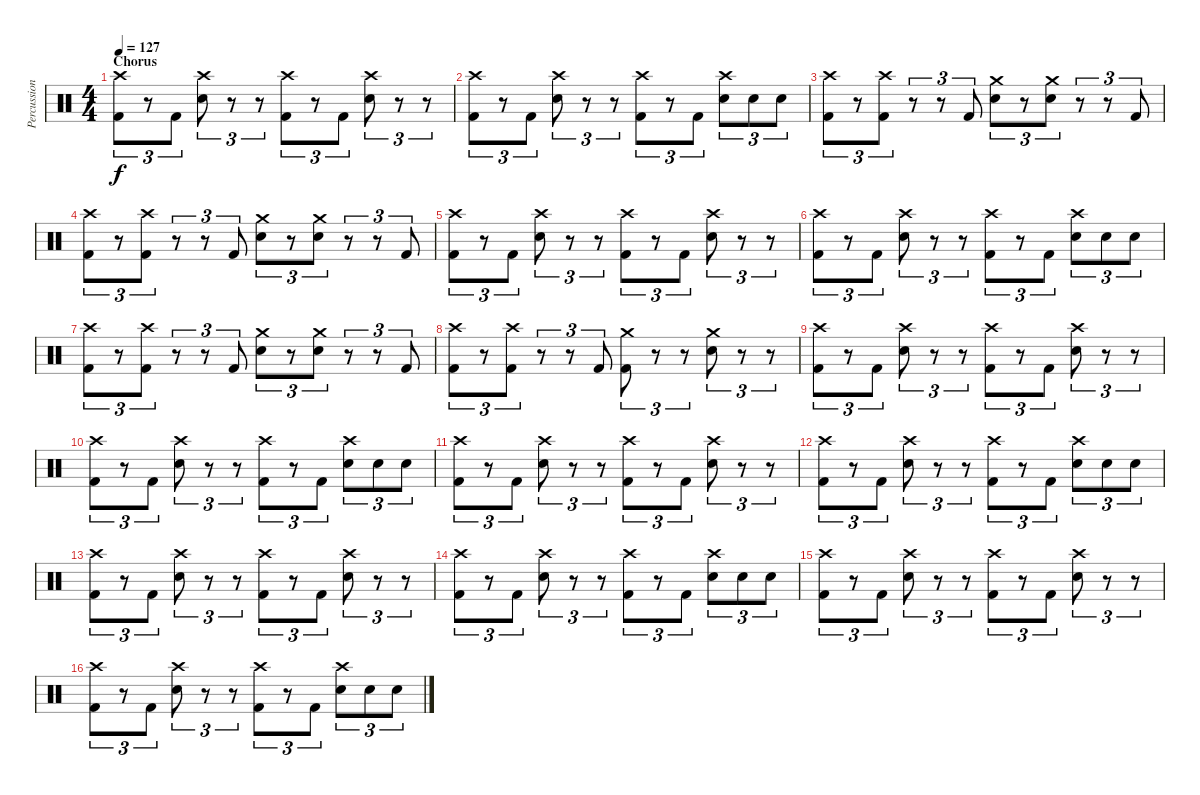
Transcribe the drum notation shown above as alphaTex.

\track ("Percussion" "Percussion") {instrument percussion}
\staff {score}
\articulation defaults
\ts (4 4)
\section ("" "Chorus")
\tempo 127
\clef neutral
\ks c
("Crash high (hit)" "Kick (hit) 2").8{tu (3 2) dy f volume 13} r.8{tu (3 2)} "Kick (hit) 2".8{tu (3 2)} ("Crash high (hit)" "Electric Snare (hit)").8{tu (3 2)} r.8{tu (3 2)} r.8{tu (3 2)} ("Crash high (hit)" "Kick (hit) 2").8{tu (3 2)} r.8{tu (3 2)} "Kick (hit) 2".8{tu (3 2)} ("Crash high (hit)" "Electric Snare (hit)").8{tu (3 2)} r.8{tu (3 2)} r.8{tu (3 2)} |
("Crash high (hit)" "Kick (hit) 2").8{tu (3 2)} r.8{tu (3 2)} "Kick (hit) 2".8{tu (3 2)} ("Crash high (hit)" "Electric Snare (hit)").8{tu (3 2)} r.8{tu (3 2)} r.8{tu (3 2)} ("Crash high (hit)" "Kick (hit) 2").8{tu (3 2)} r.8{tu (3 2)} "Kick (hit) 2".8{tu (3 2)} ("Crash high (hit)" "Electric Snare (hit)").8{tu (3 2)} "Electric Snare (hit)".8{tu (3 2)} "Electric Snare (hit)".8{tu (3 2)} |
("Crash high (hit)" "Kick (hit) 2").8{tu (3 2)} r.8{tu (3 2)} ("Crash high (hit)" "Kick (hit) 2").8{tu (3 2)} r.8{tu (3 2)} r.8{tu (3 2)} "Kick (hit) 2".8{tu (3 2)} ("Crash medium (hit)" "Electric Snare (hit)").8{tu (3 2)} r.8{tu (3 2)} ("Crash medium (hit)" "Electric Snare (hit)").8{tu (3 2)} r.8{tu (3 2)} r.8{tu (3 2)} "Kick (hit) 2".8{tu (3 2)} |
("Crash high (hit)" "Kick (hit) 2").8{tu (3 2)} r.8{tu (3 2)} ("Crash high (hit)" "Kick (hit) 2").8{tu (3 2)} r.8{tu (3 2)} r.8{tu (3 2)} "Kick (hit) 2".8{tu (3 2)} ("Crash medium (hit)" "Electric Snare (hit)").8{tu (3 2)} r.8{tu (3 2)} ("Crash medium (hit)" "Electric Snare (hit)").8{tu (3 2)} r.8{tu (3 2)} r.8{tu (3 2)} "Kick (hit) 2".8{tu (3 2)} |
("Crash high (hit)" "Kick (hit) 2").8{tu (3 2)} r.8{tu (3 2)} "Kick (hit) 2".8{tu (3 2)} ("Crash high (hit)" "Electric Snare (hit)").8{tu (3 2)} r.8{tu (3 2)} r.8{tu (3 2)} ("Crash high (hit)" "Kick (hit) 2").8{tu (3 2)} r.8{tu (3 2)} "Kick (hit) 2".8{tu (3 2)} ("Crash high (hit)" "Electric Snare (hit)").8{tu (3 2)} r.8{tu (3 2)} r.8{tu (3 2)} |
("Crash high (hit)" "Kick (hit) 2").8{tu (3 2)} r.8{tu (3 2)} "Kick (hit) 2".8{tu (3 2)} ("Crash high (hit)" "Electric Snare (hit)").8{tu (3 2)} r.8{tu (3 2)} r.8{tu (3 2)} ("Crash high (hit)" "Kick (hit) 2").8{tu (3 2)} r.8{tu (3 2)} "Kick (hit) 2".8{tu (3 2)} ("Crash high (hit)" "Electric Snare (hit)").8{tu (3 2)} "Electric Snare (hit)".8{tu (3 2)} "Electric Snare (hit)".8{tu (3 2)} |
("Crash high (hit)" "Kick (hit) 2").8{tu (3 2)} r.8{tu (3 2)} ("Crash high (hit)" "Kick (hit) 2").8{tu (3 2)} r.8{tu (3 2)} r.8{tu (3 2)} "Kick (hit) 2".8{tu (3 2)} ("Crash medium (hit)" "Electric Snare (hit)").8{tu (3 2)} r.8{tu (3 2)} ("Crash medium (hit)" "Electric Snare (hit)").8{tu (3 2)} r.8{tu (3 2)} r.8{tu (3 2)} "Kick (hit) 2".8{tu (3 2)} |
("Crash high (hit)" "Kick (hit) 2").8{tu (3 2)} r.8{tu (3 2)} ("Crash high (hit)" "Kick (hit) 2").8{tu (3 2)} r.8{tu (3 2)} r.8{tu (3 2)} "Kick (hit) 2".8{tu (3 2)} ("Crash medium (hit)" "Kick (hit) 2").8{tu (3 2)} r.8{tu (3 2)} r.8{tu (3 2)} ("Crash medium (hit)" "Electric Snare (hit)").8{tu (3 2)} r.8{tu (3 2)} r.8{tu (3 2)} |
("Crash high (hit)" "Kick (hit) 2").8{tu (3 2)} r.8{tu (3 2)} "Kick (hit) 2".8{tu (3 2)} ("Crash high (hit)" "Electric Snare (hit)").8{tu (3 2)} r.8{tu (3 2)} r.8{tu (3 2)} ("Crash high (hit)" "Kick (hit) 2").8{tu (3 2)} r.8{tu (3 2)} "Kick (hit) 2".8{tu (3 2)} ("Crash high (hit)" "Electric Snare (hit)").8{tu (3 2)} r.8{tu (3 2)} r.8{tu (3 2)} |
("Crash high (hit)" "Kick (hit) 2").8{tu (3 2)} r.8{tu (3 2)} "Kick (hit) 2".8{tu (3 2)} ("Crash high (hit)" "Electric Snare (hit)").8{tu (3 2)} r.8{tu (3 2)} r.8{tu (3 2)} ("Crash high (hit)" "Kick (hit) 2").8{tu (3 2)} r.8{tu (3 2)} "Kick (hit) 2".8{tu (3 2)} ("Crash high (hit)" "Electric Snare (hit)").8{tu (3 2)} "Electric Snare (hit)".8{tu (3 2)} "Electric Snare (hit)".8{tu (3 2)} |
("Crash high (hit)" "Kick (hit) 2").8{tu (3 2)} r.8{tu (3 2)} "Kick (hit) 2".8{tu (3 2)} ("Crash high (hit)" "Electric Snare (hit)").8{tu (3 2)} r.8{tu (3 2)} r.8{tu (3 2)} ("Crash high (hit)" "Kick (hit) 2").8{tu (3 2)} r.8{tu (3 2)} "Kick (hit) 2".8{tu (3 2)} ("Crash high (hit)" "Electric Snare (hit)").8{tu (3 2)} r.8{tu (3 2)} r.8{tu (3 2)} |
("Crash high (hit)" "Kick (hit) 2").8{tu (3 2)} r.8{tu (3 2)} "Kick (hit) 2".8{tu (3 2)} ("Crash high (hit)" "Electric Snare (hit)").8{tu (3 2)} r.8{tu (3 2)} r.8{tu (3 2)} ("Crash high (hit)" "Kick (hit) 2").8{tu (3 2)} r.8{tu (3 2)} "Kick (hit) 2".8{tu (3 2)} ("Crash high (hit)" "Electric Snare (hit)").8{tu (3 2)} "Electric Snare (hit)".8{tu (3 2)} "Electric Snare (hit)".8{tu (3 2)} |
("Crash high (hit)" "Kick (hit) 2").8{tu (3 2)} r.8{tu (3 2)} "Kick (hit) 2".8{tu (3 2)} ("Crash high (hit)" "Electric Snare (hit)").8{tu (3 2)} r.8{tu (3 2)} r.8{tu (3 2)} ("Crash high (hit)" "Kick (hit) 2").8{tu (3 2)} r.8{tu (3 2)} "Kick (hit) 2".8{tu (3 2)} ("Crash high (hit)" "Electric Snare (hit)").8{tu (3 2)} r.8{tu (3 2)} r.8{tu (3 2)} |
("Crash high (hit)" "Kick (hit) 2").8{tu (3 2)} r.8{tu (3 2)} "Kick (hit) 2".8{tu (3 2)} ("Crash high (hit)" "Electric Snare (hit)").8{tu (3 2)} r.8{tu (3 2)} r.8{tu (3 2)} ("Crash high (hit)" "Kick (hit) 2").8{tu (3 2)} r.8{tu (3 2)} "Kick (hit) 2".8{tu (3 2)} ("Crash high (hit)" "Electric Snare (hit)").8{tu (3 2)} "Electric Snare (hit)".8{tu (3 2)} "Electric Snare (hit)".8{tu (3 2)} |
("Crash high (hit)" "Kick (hit) 2").8{tu (3 2)} r.8{tu (3 2)} "Kick (hit) 2".8{tu (3 2)} ("Crash high (hit)" "Electric Snare (hit)").8{tu (3 2)} r.8{tu (3 2)} r.8{tu (3 2)} ("Crash high (hit)" "Kick (hit) 2").8{tu (3 2)} r.8{tu (3 2)} "Kick (hit) 2".8{tu (3 2)} ("Crash high (hit)" "Electric Snare (hit)").8{tu (3 2)} r.8{tu (3 2)} r.8{tu (3 2)} |
("Crash high (hit)" "Kick (hit) 2").8{tu (3 2)} r.8{tu (3 2)} "Kick (hit) 2".8{tu (3 2)} ("Crash high (hit)" "Electric Snare (hit)").8{tu (3 2)} r.8{tu (3 2)} r.8{tu (3 2)} ("Crash high (hit)" "Kick (hit) 2").8{tu (3 2)} r.8{tu (3 2)} "Kick (hit) 2".8{tu (3 2)} ("Crash high (hit)" "Electric Snare (hit)").8{tu (3 2)} "Electric Snare (hit)".8{tu (3 2)} "Electric Snare (hit)".8{tu (3 2)}
